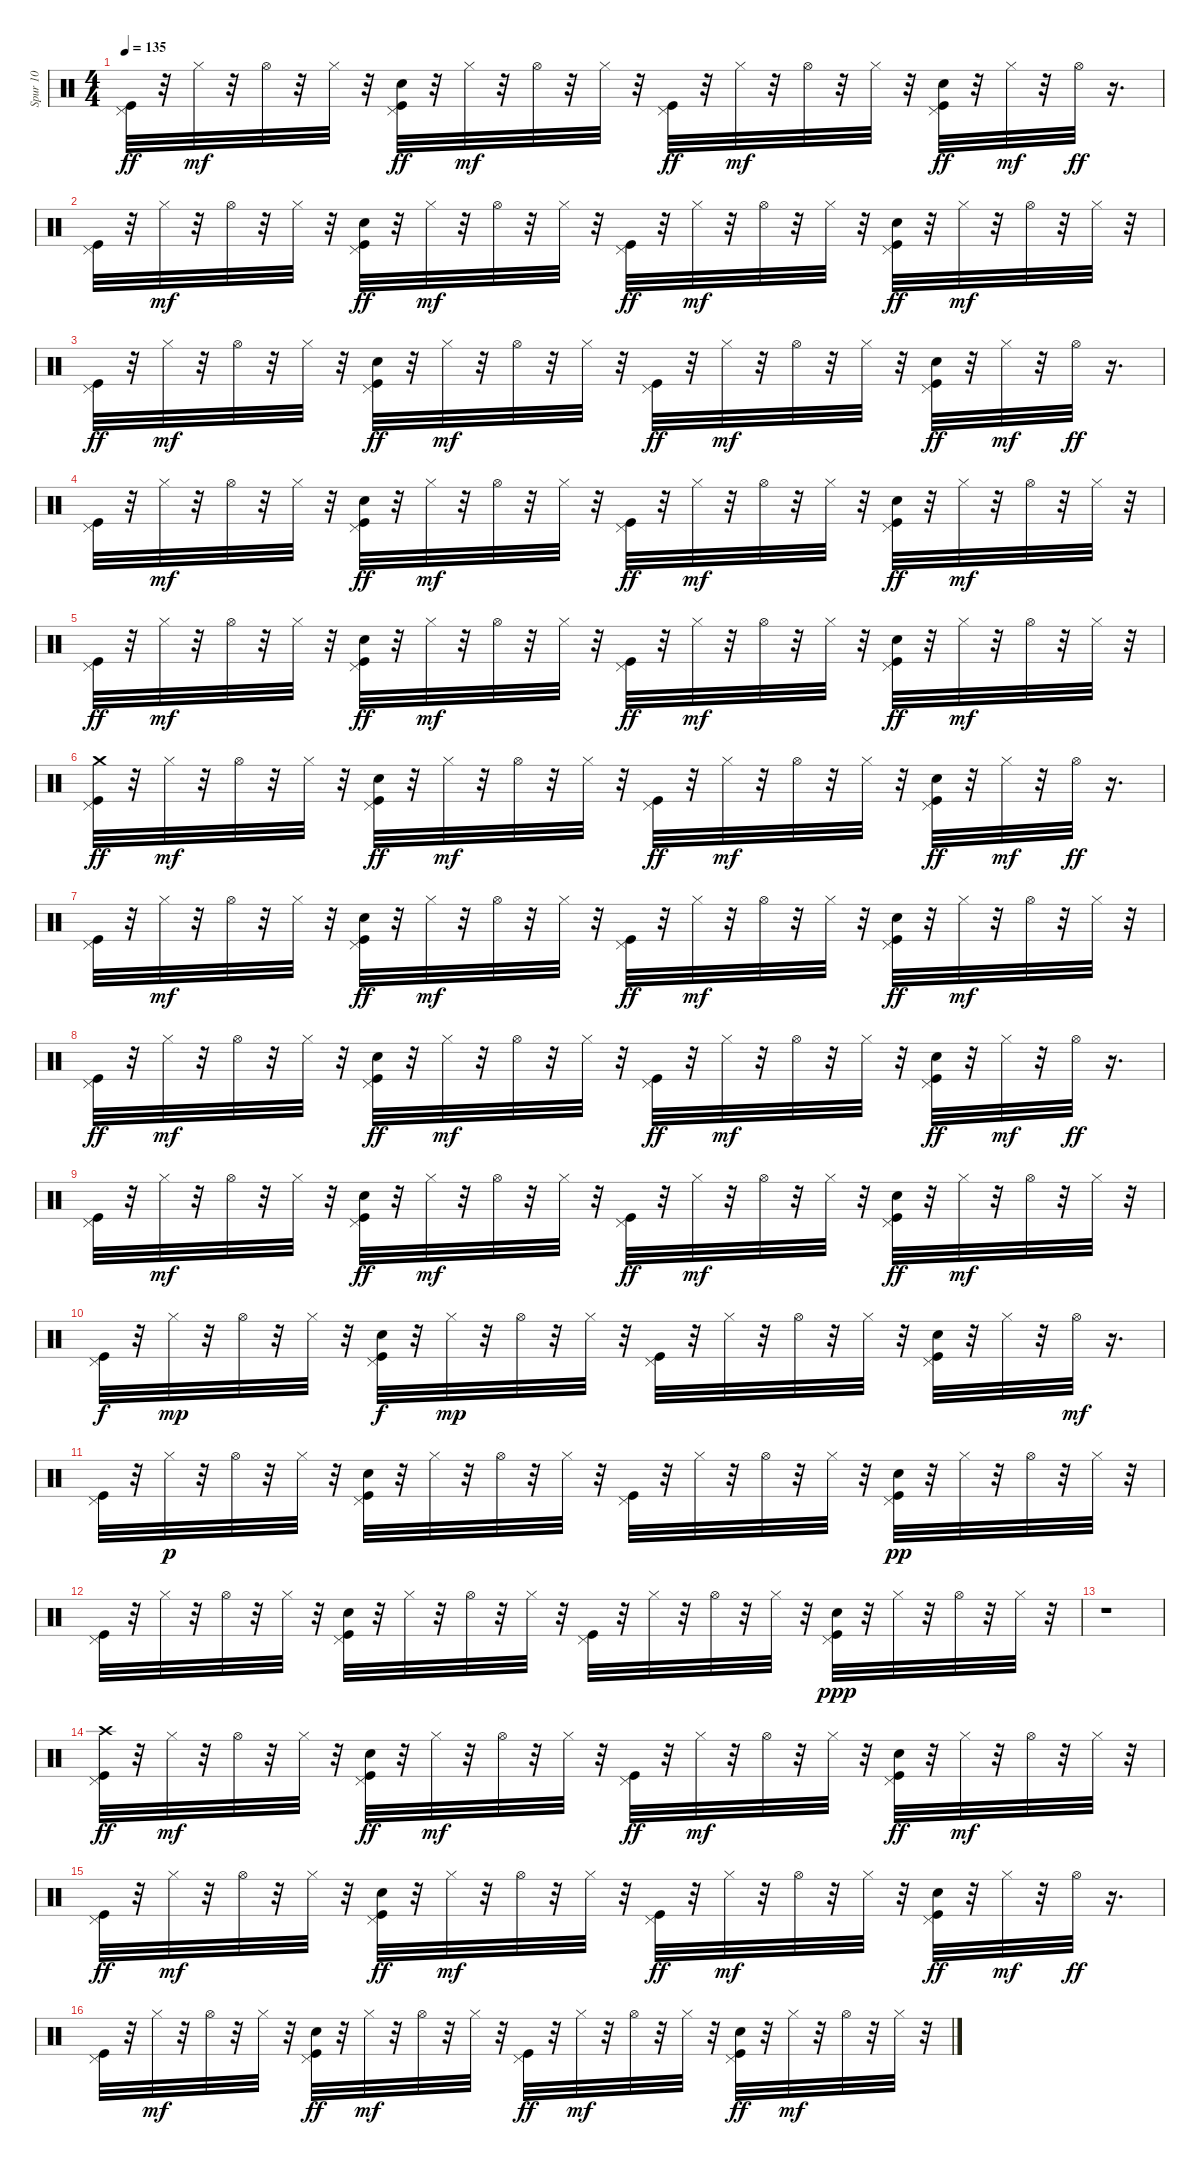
\track ("Spur 10" "Spur 10") {instrument percussion}
\staff {score}
\articulation defaults
\ts (4 4)
\tempo 135
\clef neutral
\ks c
("Kick (hit)" "Pedal Hi-Hat (hit)").32{dy ff} r.32 "Hi-Hat (closed)".32{dy mf} r.32 "Hi-Hat (open)".32 r.32 "Hi-Hat (closed)".32 r.32 ("Kick (hit)" "Hand Clap (hit)" "Pedal Hi-Hat (hit)").32{dy ff} r.32 "Hi-Hat (closed)".32{dy mf} r.32 "Hi-Hat (open)".32 r.32 "Hi-Hat (closed)".32 r.32 ("Kick (hit)" "Pedal Hi-Hat (hit)").32{dy ff} r.32 "Hi-Hat (closed)".32{dy mf} r.32 "Hi-Hat (open)".32 r.32 "Hi-Hat (closed)".32 r.32 ("Kick (hit)" "Hand Clap (hit)" "Pedal Hi-Hat (hit)").32{dy ff} r.32 "Hi-Hat (closed)".32{dy mf} r.32 "Hi-Hat (open)".32{dy ff} r.16{d} |
("Kick (hit)" "Pedal Hi-Hat (hit)").32 r.32 "Hi-Hat (closed)".32{dy mf} r.32 "Hi-Hat (open)".32 r.32 "Hi-Hat (closed)".32 r.32 ("Kick (hit)" "Hand Clap (hit)" "Pedal Hi-Hat (hit)").32{dy ff} r.32 "Hi-Hat (closed)".32{dy mf} r.32 "Hi-Hat (open)".32 r.32 "Hi-Hat (closed)".32 r.32 ("Kick (hit)" "Pedal Hi-Hat (hit)").32{dy ff} r.32 "Hi-Hat (closed)".32{dy mf} r.32 "Hi-Hat (open)".32 r.32 "Hi-Hat (closed)".32 r.32 ("Kick (hit)" "Hand Clap (hit)" "Pedal Hi-Hat (hit)").32{dy ff} r.32 "Hi-Hat (closed)".32{dy mf} r.32 "Hi-Hat (open)".32 r.32 "Hi-Hat (closed)".32 r.32 |
("Kick (hit)" "Pedal Hi-Hat (hit)").32{dy ff} r.32 "Hi-Hat (closed)".32{dy mf} r.32 "Hi-Hat (open)".32 r.32 "Hi-Hat (closed)".32 r.32 ("Kick (hit)" "Hand Clap (hit)" "Pedal Hi-Hat (hit)").32{dy ff} r.32 "Hi-Hat (closed)".32{dy mf} r.32 "Hi-Hat (open)".32 r.32 "Hi-Hat (closed)".32 r.32 ("Kick (hit)" "Pedal Hi-Hat (hit)").32{dy ff} r.32 "Hi-Hat (closed)".32{dy mf} r.32 "Hi-Hat (open)".32 r.32 "Hi-Hat (closed)".32 r.32 ("Kick (hit)" "Hand Clap (hit)" "Pedal Hi-Hat (hit)").32{dy ff} r.32 "Hi-Hat (closed)".32{dy mf} r.32 "Hi-Hat (open)".32{dy ff} r.16{d} |
("Kick (hit)" "Pedal Hi-Hat (hit)").32 r.32 "Hi-Hat (closed)".32{dy mf} r.32 "Hi-Hat (open)".32 r.32 "Hi-Hat (closed)".32 r.32 ("Kick (hit)" "Hand Clap (hit)" "Pedal Hi-Hat (hit)").32{dy ff} r.32 "Hi-Hat (closed)".32{dy mf} r.32 "Hi-Hat (open)".32 r.32 "Hi-Hat (closed)".32 r.32 ("Kick (hit)" "Pedal Hi-Hat (hit)").32{dy ff} r.32 "Hi-Hat (closed)".32{dy mf} r.32 "Hi-Hat (open)".32 r.32 "Hi-Hat (closed)".32 r.32 ("Kick (hit)" "Hand Clap (hit)" "Pedal Hi-Hat (hit)").32{dy ff} r.32 "Hi-Hat (closed)".32{dy mf} r.32 "Hi-Hat (open)".32 r.32 "Hi-Hat (closed)".32 r.32 |
("Kick (hit)" "Pedal Hi-Hat (hit)").32{dy ff} r.32 "Hi-Hat (closed)".32{dy mf} r.32 "Hi-Hat (open)".32 r.32 "Hi-Hat (closed)".32 r.32 ("Kick (hit)" "Hand Clap (hit)" "Pedal Hi-Hat (hit)").32{dy ff} r.32 "Hi-Hat (closed)".32{dy mf} r.32 "Hi-Hat (open)".32 r.32 "Hi-Hat (closed)".32 r.32 ("Kick (hit)" "Pedal Hi-Hat (hit)").32{dy ff} r.32 "Hi-Hat (closed)".32{dy mf} r.32 "Hi-Hat (open)".32 r.32 "Hi-Hat (closed)".32 r.32 ("Kick (hit)" "Hand Clap (hit)" "Pedal Hi-Hat (hit)").32{dy ff} r.32 "Hi-Hat (closed)".32{dy mf} r.32 "Hi-Hat (open)".32 r.32 "Hi-Hat (closed)".32 r.32 |
("Crash medium (hit)" "Kick (hit)" "Pedal Hi-Hat (hit)").32{dy ff} r.32 "Hi-Hat (closed)".32{dy mf} r.32 "Hi-Hat (open)".32 r.32 "Hi-Hat (closed)".32 r.32 ("Kick (hit)" "Hand Clap (hit)" "Pedal Hi-Hat (hit)").32{dy ff} r.32 "Hi-Hat (closed)".32{dy mf} r.32 "Hi-Hat (open)".32 r.32 "Hi-Hat (closed)".32 r.32 ("Kick (hit)" "Pedal Hi-Hat (hit)").32{dy ff} r.32 "Hi-Hat (closed)".32{dy mf} r.32 "Hi-Hat (open)".32 r.32 "Hi-Hat (closed)".32 r.32 ("Kick (hit)" "Hand Clap (hit)" "Pedal Hi-Hat (hit)").32{dy ff} r.32 "Hi-Hat (closed)".32{dy mf} r.32 "Hi-Hat (open)".32{dy ff} r.16{d} |
("Kick (hit)" "Pedal Hi-Hat (hit)").32 r.32 "Hi-Hat (closed)".32{dy mf} r.32 "Hi-Hat (open)".32 r.32 "Hi-Hat (closed)".32 r.32 ("Kick (hit)" "Hand Clap (hit)" "Pedal Hi-Hat (hit)").32{dy ff} r.32 "Hi-Hat (closed)".32{dy mf} r.32 "Hi-Hat (open)".32 r.32 "Hi-Hat (closed)".32 r.32 ("Kick (hit)" "Pedal Hi-Hat (hit)").32{dy ff} r.32 "Hi-Hat (closed)".32{dy mf} r.32 "Hi-Hat (open)".32 r.32 "Hi-Hat (closed)".32 r.32 ("Kick (hit)" "Hand Clap (hit)" "Pedal Hi-Hat (hit)").32{dy ff} r.32 "Hi-Hat (closed)".32{dy mf} r.32 "Hi-Hat (open)".32 r.32 "Hi-Hat (closed)".32 r.32 |
("Kick (hit)" "Pedal Hi-Hat (hit)").32{dy ff} r.32 "Hi-Hat (closed)".32{dy mf} r.32 "Hi-Hat (open)".32 r.32 "Hi-Hat (closed)".32 r.32 ("Kick (hit)" "Hand Clap (hit)" "Pedal Hi-Hat (hit)").32{dy ff} r.32 "Hi-Hat (closed)".32{dy mf} r.32 "Hi-Hat (open)".32 r.32 "Hi-Hat (closed)".32 r.32 ("Kick (hit)" "Pedal Hi-Hat (hit)").32{dy ff} r.32 "Hi-Hat (closed)".32{dy mf} r.32 "Hi-Hat (open)".32 r.32 "Hi-Hat (closed)".32 r.32 ("Kick (hit)" "Hand Clap (hit)" "Pedal Hi-Hat (hit)").32{dy ff} r.32 "Hi-Hat (closed)".32{dy mf} r.32 "Hi-Hat (open)".32{dy ff} r.16{d} |
("Kick (hit)" "Pedal Hi-Hat (hit)").32 r.32 "Hi-Hat (closed)".32{dy mf} r.32 "Hi-Hat (open)".32 r.32 "Hi-Hat (closed)".32 r.32 ("Kick (hit)" "Hand Clap (hit)" "Pedal Hi-Hat (hit)").32{dy ff} r.32 "Hi-Hat (closed)".32{dy mf} r.32 "Hi-Hat (open)".32 r.32 "Hi-Hat (closed)".32 r.32 ("Kick (hit)" "Pedal Hi-Hat (hit)").32{dy ff} r.32 "Hi-Hat (closed)".32{dy mf} r.32 "Hi-Hat (open)".32 r.32 "Hi-Hat (closed)".32 r.32 ("Kick (hit)" "Hand Clap (hit)" "Pedal Hi-Hat (hit)").32{dy ff} r.32 "Hi-Hat (closed)".32{dy mf} r.32 "Hi-Hat (open)".32 r.32 "Hi-Hat (closed)".32 r.32 |
("Kick (hit)" "Pedal Hi-Hat (hit)").32{dy f} r.32 "Hi-Hat (closed)".32{dy mp} r.32 "Hi-Hat (open)".32 r.32 "Hi-Hat (closed)".32 r.32 ("Kick (hit)" "Hand Clap (hit)" "Pedal Hi-Hat (hit)").32{dy f} r.32 "Hi-Hat (closed)".32{dy mp} r.32 "Hi-Hat (open)".32 r.32 "Hi-Hat (closed)".32 r.32 ("Kick (hit)" "Pedal Hi-Hat (hit)").32 r.32 "Hi-Hat (closed)".32 r.32 "Hi-Hat (open)".32 r.32 "Hi-Hat (closed)".32 r.32 ("Kick (hit)" "Hand Clap (hit)" "Pedal Hi-Hat (hit)").32 r.32 "Hi-Hat (closed)".32 r.32 "Hi-Hat (open)".32{dy mf} r.16{d} |
("Kick (hit)" "Pedal Hi-Hat (hit)").32 r.32 "Hi-Hat (closed)".32{dy p} r.32 "Hi-Hat (open)".32 r.32 "Hi-Hat (closed)".32 r.32 ("Kick (hit)" "Hand Clap (hit)" "Pedal Hi-Hat (hit)").32 r.32 "Hi-Hat (closed)".32 r.32 "Hi-Hat (open)".32 r.32 "Hi-Hat (closed)".32 r.32 ("Kick (hit)" "Pedal Hi-Hat (hit)").32 r.32 "Hi-Hat (closed)".32 r.32 "Hi-Hat (open)".32 r.32 "Hi-Hat (closed)".32 r.32 ("Kick (hit)" "Hand Clap (hit)" "Pedal Hi-Hat (hit)").32{dy pp} r.32 "Hi-Hat (closed)".32 r.32 "Hi-Hat (open)".32 r.32 "Hi-Hat (closed)".32 r.32 |
("Kick (hit)" "Pedal Hi-Hat (hit)").32 r.32 "Hi-Hat (closed)".32 r.32 "Hi-Hat (open)".32 r.32 "Hi-Hat (closed)".32 r.32 ("Kick (hit)" "Hand Clap (hit)" "Pedal Hi-Hat (hit)").32 r.32 "Hi-Hat (closed)".32 r.32 "Hi-Hat (open)".32 r.32 "Hi-Hat (closed)".32 r.32 ("Kick (hit)" "Pedal Hi-Hat (hit)").32 r.32 "Hi-Hat (closed)".32 r.32 "Hi-Hat (open)".32 r.32 "Hi-Hat (closed)".32 r.32 ("Kick (hit)" "Hand Clap (hit)" "Pedal Hi-Hat (hit)").32{dy ppp} r.32 "Hi-Hat (closed)".32 r.32 "Hi-Hat (open)".32 r.32 "Hi-Hat (closed)".32 r.32 |
r.1 |
("Crash high (hit)" "Kick (hit)" "Pedal Hi-Hat (hit)").32{dy ff} r.32 "Hi-Hat (closed)".32{dy mf} r.32 "Hi-Hat (open)".32 r.32 "Hi-Hat (closed)".32 r.32 ("Kick (hit)" "Hand Clap (hit)" "Pedal Hi-Hat (hit)").32{dy ff} r.32 "Hi-Hat (closed)".32{dy mf} r.32 "Hi-Hat (open)".32 r.32 "Hi-Hat (closed)".32 r.32 ("Kick (hit)" "Pedal Hi-Hat (hit)").32{dy ff} r.32 "Hi-Hat (closed)".32{dy mf} r.32 "Hi-Hat (open)".32 r.32 "Hi-Hat (closed)".32 r.32 ("Kick (hit)" "Hand Clap (hit)" "Pedal Hi-Hat (hit)").32{dy ff} r.32 "Hi-Hat (closed)".32{dy mf} r.32 "Hi-Hat (open)".32 r.32 "Hi-Hat (closed)".32 r.32 |
("Kick (hit)" "Pedal Hi-Hat (hit)").32{dy ff} r.32 "Hi-Hat (closed)".32{dy mf} r.32 "Hi-Hat (open)".32 r.32 "Hi-Hat (closed)".32 r.32 ("Kick (hit)" "Hand Clap (hit)" "Pedal Hi-Hat (hit)").32{dy ff} r.32 "Hi-Hat (closed)".32{dy mf} r.32 "Hi-Hat (open)".32 r.32 "Hi-Hat (closed)".32 r.32 ("Kick (hit)" "Pedal Hi-Hat (hit)").32{dy ff} r.32 "Hi-Hat (closed)".32{dy mf} r.32 "Hi-Hat (open)".32 r.32 "Hi-Hat (closed)".32 r.32 ("Kick (hit)" "Hand Clap (hit)" "Pedal Hi-Hat (hit)").32{dy ff} r.32 "Hi-Hat (closed)".32{dy mf} r.32 "Hi-Hat (open)".32{dy ff} r.16{d} |
("Kick (hit)" "Pedal Hi-Hat (hit)").32 r.32 "Hi-Hat (closed)".32{dy mf} r.32 "Hi-Hat (open)".32 r.32 "Hi-Hat (closed)".32 r.32 ("Kick (hit)" "Hand Clap (hit)" "Pedal Hi-Hat (hit)").32{dy ff} r.32 "Hi-Hat (closed)".32{dy mf} r.32 "Hi-Hat (open)".32 r.32 "Hi-Hat (closed)".32 r.32 ("Kick (hit)" "Pedal Hi-Hat (hit)").32{dy ff} r.32 "Hi-Hat (closed)".32{dy mf} r.32 "Hi-Hat (open)".32 r.32 "Hi-Hat (closed)".32 r.32 ("Kick (hit)" "Hand Clap (hit)" "Pedal Hi-Hat (hit)").32{dy ff} r.32 "Hi-Hat (closed)".32{dy mf} r.32 "Hi-Hat (open)".32 r.32 "Hi-Hat (closed)".32 r.32
